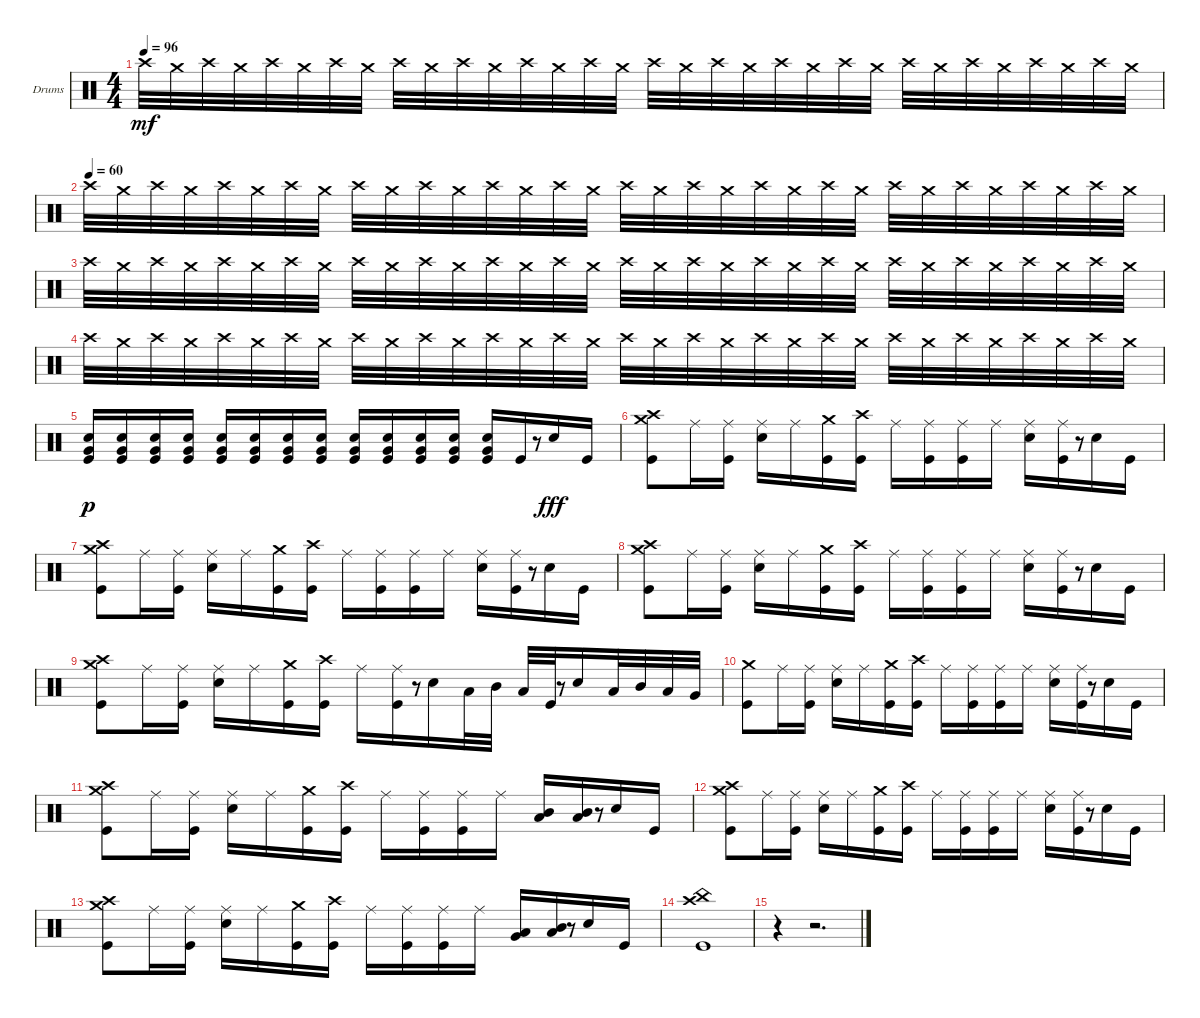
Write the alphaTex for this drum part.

\defaultSystemsLayout 4
\bracketExtendMode groupsimilarinstruments
\firstSystemTrackNameOrientation horizontal
\otherSystemsTrackNameOrientation horizontal
\track ("Howard" "Drums") {instrument percussion}
\staff {score}
\articulation defaults
\ts (4 4)
\tempo 96
\clef neutral
\ks c "Crash high (hit)".32{dy mf} "Crash medium (hit)".32 "Crash high (hit)".32 "Crash medium (hit)".32 "Crash high (hit)".32 "Crash medium (hit)".32 "Crash high (hit)".32 "Crash medium (hit)".32 "Crash high (hit)".32 "Crash medium (hit)".32 "Crash high (hit)".32 "Crash medium (hit)".32 "Crash high (hit)".32 "Crash medium (hit)".32 "Crash high (hit)".32 "Crash medium (hit)".32 "Crash high (hit)".32 "Crash medium (hit)".32 "Crash high (hit)".32 "Crash medium (hit)".32 "Crash high (hit)".32 "Crash medium (hit)".32 "Crash high (hit)".32 "Crash medium (hit)".32 "Crash high (hit)".32 "Crash medium (hit)".32 "Crash high (hit)".32 "Crash medium (hit)".32 "Crash high (hit)".32 "Crash medium (hit)".32 "Crash high (hit)".32 "Crash medium (hit)".32
|
\tempo (60)
"Crash high (hit)".32 "Crash medium (hit)".32 "Crash high (hit)".32 "Crash medium (hit)".32 "Crash high (hit)".32 "Crash medium (hit)".32 "Crash high (hit)".32 "Crash medium (hit)".32 "Crash high (hit)".32 "Crash medium (hit)".32 "Crash high (hit)".32 "Crash medium (hit)".32 "Crash high (hit)".32 "Crash medium (hit)".32 "Crash high (hit)".32 "Crash medium (hit)".32 "Crash high (hit)".32 "Crash medium (hit)".32 "Crash high (hit)".32 "Crash medium (hit)".32 "Crash high (hit)".32 "Crash medium (hit)".32 "Crash high (hit)".32 "Crash medium (hit)".32 "Crash high (hit)".32 "Crash medium (hit)".32 "Crash high (hit)".32 "Crash medium (hit)".32 "Crash high (hit)".32 "Crash medium (hit)".32 "Crash high (hit)".32 "Crash medium (hit)".32 |
"Crash high (hit)".32 "Crash medium (hit)".32 "Crash high (hit)".32 "Crash medium (hit)".32 "Crash high (hit)".32 "Crash medium (hit)".32 "Crash high (hit)".32 "Crash medium (hit)".32 "Crash high (hit)".32 "Crash medium (hit)".32 "Crash high (hit)".32 "Crash medium (hit)".32 "Crash high (hit)".32 "Crash medium (hit)".32 "Crash high (hit)".32 "Crash medium (hit)".32 "Crash high (hit)".32 "Crash medium (hit)".32 "Crash high (hit)".32 "Crash medium (hit)".32 "Crash high (hit)".32 "Crash medium (hit)".32 "Crash high (hit)".32 "Crash medium (hit)".32 "Crash high (hit)".32 "Crash medium (hit)".32 "Crash high (hit)".32 "Crash medium (hit)".32 "Crash high (hit)".32 "Crash medium (hit)".32 "Crash high (hit)".32 "Crash medium (hit)".32 |
"Crash high (hit)".32 "Crash medium (hit)".32 "Crash high (hit)".32 "Crash medium (hit)".32 "Crash high (hit)".32 "Crash medium (hit)".32 "Crash high (hit)".32 "Crash medium (hit)".32 "Crash high (hit)".32 "Crash medium (hit)".32 "Crash high (hit)".32 "Crash medium (hit)".32 "Crash high (hit)".32 "Crash medium (hit)".32 "Crash high (hit)".32 "Crash medium (hit)".32 "Crash high (hit)".32 "Crash medium (hit)".32 "Crash high (hit)".32 "Crash medium (hit)".32 "Crash high (hit)".32 "Crash medium (hit)".32 "Crash high (hit)".32 "Crash medium (hit)".32 "Crash high (hit)".32 "Crash medium (hit)".32 "Crash high (hit)".32 "Crash medium (hit)".32 "Crash high (hit)".32 "Crash medium (hit)".32 "Crash high (hit)".32 "Crash medium (hit)".32 |
("Kick (hit)" "Very Low Tom (hit)" "Snare (hit) 2").16{dy p} ("Kick (hit)" "Very Low Tom (hit)" "Snare (hit) 2").16 ("Kick (hit)" "Very Low Tom (hit)" "Snare (hit) 2").16 ("Kick (hit)" "Very Low Tom (hit)" "Snare (hit) 2").16 ("Kick (hit)" "Very Low Tom (hit)" "Snare (hit) 2").16 ("Kick (hit)" "Very Low Tom (hit)" "Snare (hit) 2").16 ("Kick (hit)" "Very Low Tom (hit)" "Snare (hit) 2").16 ("Kick (hit)" "Very Low Tom (hit)" "Snare (hit) 2").16 ("Kick (hit)" "Very Low Tom (hit)" "Snare (hit) 2").16 ("Kick (hit)" "Very Low Tom (hit)" "Snare (hit) 2").16 ("Kick (hit)" "Very Low Tom (hit)" "Snare (hit) 2").16 ("Kick (hit)" "Very Low Tom (hit)" "Snare (hit) 2").16 ("Kick (hit)" "Very Low Tom (hit)" "Snare (hit) 2").16 "Kick (hit)".16 r.8{gr onbeat} "Snare (hit) 2".16{dy fff} "Kick (hit)".16 |
("Crash high (hit)" "Crash medium (hit)" "Kick (hit)").8 "Ride (middle)".16 ("Ride (middle)" "Kick (hit)").16 ("Ride (middle)" "Snare (hit) 2").16 "Ride (middle)".16 ("Crash medium (hit)" "Kick (hit)").16 ("Crash high (hit)" "Kick (hit)").16 "Ride (middle)".16 ("Ride (middle)" "Kick (hit)").16 ("Ride (middle)" "Kick (hit)").16 "Ride (middle)".16 ("Ride (middle)" "Snare (hit) 2").16 ("Ride (middle)" "Kick (hit)").16 r.8{gr} "Snare (hit) 2".16 "Kick (hit)".16 |
("Crash high (hit)" "Crash medium (hit)" "Kick (hit)").8 "Ride (middle)".16 ("Ride (middle)" "Kick (hit)").16 ("Ride (middle)" "Snare (hit) 2").16 "Ride (middle)".16 ("Crash medium (hit)" "Kick (hit)").16 ("Crash high (hit)" "Kick (hit)").16 "Ride (middle)".16 ("Ride (middle)" "Kick (hit)").16 ("Ride (middle)" "Kick (hit)").16 "Ride (middle)".16 ("Ride (middle)" "Snare (hit) 2").16 ("Ride (middle)" "Kick (hit)").16 r.8{gr} "Snare (hit) 2".16 "Kick (hit)".16 |
("Crash high (hit)" "Crash medium (hit)" "Kick (hit)").8 "Ride (middle)".16 ("Ride (middle)" "Kick (hit)").16 ("Ride (middle)" "Snare (hit) 2").16 "Ride (middle)".16 ("Crash medium (hit)" "Kick (hit)").16 ("Crash high (hit)" "Kick (hit)").16 "Ride (middle)".16 ("Ride (middle)" "Kick (hit)").16 ("Ride (middle)" "Kick (hit)").16 "Ride (middle)".16 ("Ride (middle)" "Snare (hit) 2").16 ("Ride (middle)" "Kick (hit)").16 r.8{gr} "Snare (hit) 2".16 "Kick (hit)".16 |
("Crash high (hit)" "Crash medium (hit)" "Kick (hit)").8 "Ride (middle)".16 ("Ride (middle)" "Kick (hit)").16 ("Ride (middle)" "Snare (hit) 2").16 "Ride (middle)".16 ("Crash medium (hit)" "Kick (hit)").16 ("Crash high (hit)" "Kick (hit)").16 "Ride (middle)".16 ("Ride (middle)" "Kick (hit)").16 r.8{gr} "Snare (hit) 2".16 "Low Tom (hit)".32 "Mid Tom (hit)".32 "Low Tom (hit)".32 "Kick (hit)".32 r.8{gr} "Snare (hit) 2".16 "Low Tom (hit)".32 "Mid Tom (hit)".32 "Low Tom (hit)".32 "Very Low Tom (hit)".32 |
("Kick (hit)" "Crash medium (hit)").8 "Ride (middle)".16 ("Ride (middle)" "Kick (hit)").16 ("Ride (middle)" "Snare (hit) 2").16 "Ride (middle)".16 ("Crash medium (hit)" "Kick (hit)").16 ("Crash high (hit)" "Kick (hit)").16 "Ride (middle)".16 ("Ride (middle)" "Kick (hit)").16 ("Ride (middle)" "Kick (hit)").16 "Ride (middle)".16 ("Ride (middle)" "Snare (hit) 2").16 ("Ride (middle)" "Kick (hit)").16 r.8{gr} "Snare (hit) 2".16 "Kick (hit)".16 |
("Crash high (hit)" "Crash medium (hit)" "Kick (hit)").8 "Ride (middle)".16 ("Ride (middle)" "Kick (hit)").16 ("Ride (middle)" "Snare (hit) 2").16 "Ride (middle)".16 ("Crash medium (hit)" "Kick (hit)").16 ("Crash high (hit)" "Kick (hit)").16 "Ride (middle)".16 ("Ride (middle)" "Kick (hit)").16 ("Ride (middle)" "Kick (hit)").16 "Ride (middle)".16 ("Mid Tom (hit)" "Low Tom (hit)").16 ("Mid Tom (hit)" "Low Tom (hit)").16 r.8{gr} "Snare (hit) 2".16 "Kick (hit)".16 |
("Crash high (hit)" "Crash medium (hit)" "Kick (hit)").8 "Ride (middle)".16 ("Ride (middle)" "Kick (hit)").16 ("Ride (middle)" "Snare (hit) 2").16 "Ride (middle)".16 ("Crash medium (hit)" "Kick (hit)").16 ("Crash high (hit)" "Kick (hit)").16 "Ride (middle)".16 ("Ride (middle)" "Kick (hit)").16 ("Ride (middle)" "Kick (hit)").16 "Ride (middle)".16 ("Ride (middle)" "Snare (hit) 2").16 ("Ride (middle)" "Kick (hit)").16 r.8{gr} "Snare (hit) 2".16 "Kick (hit)".16 |
("Crash high (hit)" "Crash medium (hit)" "Kick (hit)").8 "Ride (middle)".16 ("Ride (middle)" "Kick (hit)").16 ("Ride (middle)" "Snare (hit) 2").16 "Ride (middle)".16 ("Crash medium (hit)" "Kick (hit)").16 ("Crash high (hit)" "Kick (hit)").16 "Ride (middle)".16 ("Ride (middle)" "Kick (hit)").16 ("Ride (middle)" "Kick (hit)").16 "Ride (middle)".16 ("Low Tom (hit)" "Very Low Tom (hit)").16 ("Mid Tom (hit)" "Low Tom (hit)").16 r.8{gr} "Snare (hit) 2".16 "Kick (hit)".16 |
("Kick (hit)" "China (hit)" "Crash high (hit)").1 |
r.4 r.2{d}
